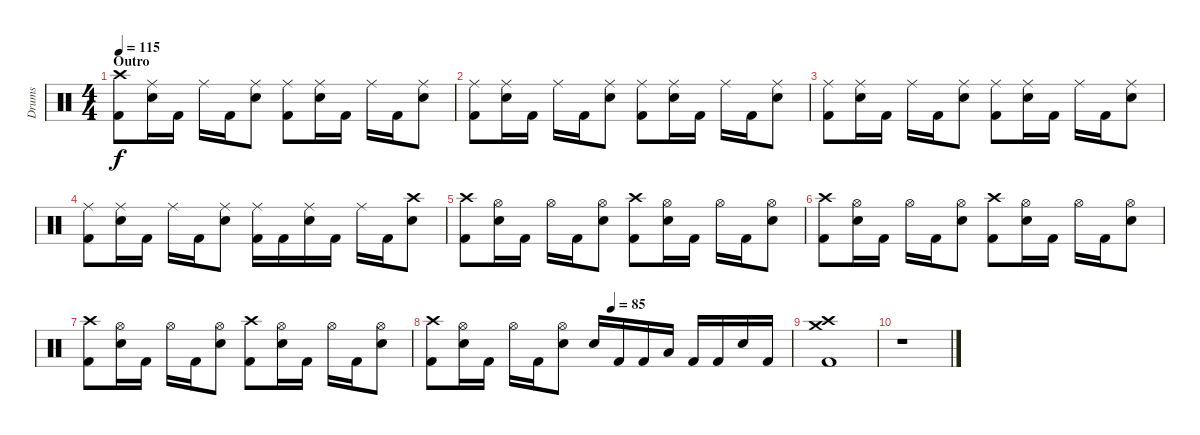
\track ("Drums" "Drums") {instrument percussion}
\staff {score}
\articulation defaults
\ts (4 4)
\section ("" "Outro")
\tempo 115
\clef neutral
\ks c
("Kick (hit) 2" "Crash high (hit)").8{dy f} ("Ride (middle)" "Snare (hit) 2").16 "Kick (hit) 2".16 "Ride (middle)".16 "Kick (hit) 2".16 ("Ride (middle)" "Snare (hit) 2").8 ("Kick (hit) 2" "Ride (middle)").8 ("Ride (middle)" "Snare (hit) 2").16 "Kick (hit) 2".16 "Ride (middle)".16 "Kick (hit) 2".16 ("Ride (middle)" "Snare (hit) 2").8 |
("Kick (hit) 2" "Ride (middle)").8 ("Ride (middle)" "Snare (hit) 2").16 "Kick (hit) 2".16 "Ride (middle)".16 "Kick (hit) 2".16 ("Ride (middle)" "Snare (hit) 2").8 ("Kick (hit) 2" "Ride (middle)").8 ("Ride (middle)" "Snare (hit) 2").16 "Kick (hit) 2".16 "Ride (middle)".16 "Kick (hit) 2".16 ("Ride (middle)" "Snare (hit) 2").8 |
("Kick (hit) 2" "Ride (middle)").8 ("Ride (middle)" "Snare (hit) 2").16 "Kick (hit) 2".16 "Ride (middle)".16 "Kick (hit) 2".16 ("Ride (middle)" "Snare (hit) 2").8 ("Kick (hit) 2" "Ride (middle)").8 ("Ride (middle)" "Snare (hit) 2").16 "Kick (hit) 2".16 "Ride (middle)".16 "Kick (hit) 2".16 ("Ride (middle)" "Snare (hit) 2").8 |
("Kick (hit) 2" "Ride (middle)").8 ("Ride (middle)" "Snare (hit) 2").16 "Kick (hit) 2".16 "Ride (middle)".16 "Kick (hit) 2".16 ("Ride (middle)" "Snare (hit) 2").8 ("Kick (hit) 2" "Ride (middle)").16 "Kick (hit) 2".16 ("Ride (middle)" "Snare (hit) 2").16 "Kick (hit) 2".16 "Ride (middle)".16 "Kick (hit) 2".16 ("Crash high (hit)" "Snare (hit) 2").8 |
("Kick (hit) 2" "Crash high (hit)").8 ("Snare (hit) 2" "Hi-Hat (open)").16 "Kick (hit) 2".16 "Hi-Hat (open)".16 "Kick (hit) 2".16 ("Snare (hit) 2" "Hi-Hat (open)").8 ("Kick (hit) 2" "Crash high (hit)").8 ("Snare (hit) 2" "Hi-Hat (open)").16 "Kick (hit) 2".16 "Hi-Hat (open)".16 "Kick (hit) 2".16 ("Snare (hit) 2" "Hi-Hat (open)").8 |
("Kick (hit) 2" "Crash high (hit)").8 ("Snare (hit) 2" "Hi-Hat (open)").16 "Kick (hit) 2".16 "Hi-Hat (open)".16 "Kick (hit) 2".16 ("Snare (hit) 2" "Hi-Hat (open)").8 ("Kick (hit) 2" "Crash high (hit)").8 ("Snare (hit) 2" "Hi-Hat (open)").16 "Kick (hit) 2".16 "Hi-Hat (open)".16 "Kick (hit) 2".16 ("Snare (hit) 2" "Hi-Hat (open)").8 |
("Kick (hit) 2" "Crash high (hit)").8 ("Snare (hit) 2" "Hi-Hat (open)").16 "Kick (hit) 2".16 "Hi-Hat (open)".16 "Kick (hit) 2".16 ("Snare (hit) 2" "Hi-Hat (open)").8 ("Kick (hit) 2" "Crash high (hit)").8 ("Snare (hit) 2" "Hi-Hat (open)").16 "Kick (hit) 2".16 "Hi-Hat (open)".16 "Kick (hit) 2".16 ("Snare (hit) 2" "Hi-Hat (open)").8 |
\tempo (85 0.5)
("Kick (hit) 2" "Crash high (hit)").8 ("Snare (hit) 2" "Hi-Hat (open)").16 "Kick (hit) 2".16 "Hi-Hat (open)".16 "Kick (hit) 2".16 ("Snare (hit) 2" "Hi-Hat (open)").8 "Snare (hit) 2".16 "Kick (hit) 2".16 "Kick (hit) 2".16 "Low Tom (hit)".16 "Kick (hit) 2".16 "Kick (hit) 2".16 "Snare (hit) 2".16 "Kick (hit) 2".16 |
("Kick (hit) 2" "Crash high (hit)" "Crash medium (hit)").1{volume 0} |
r.1
